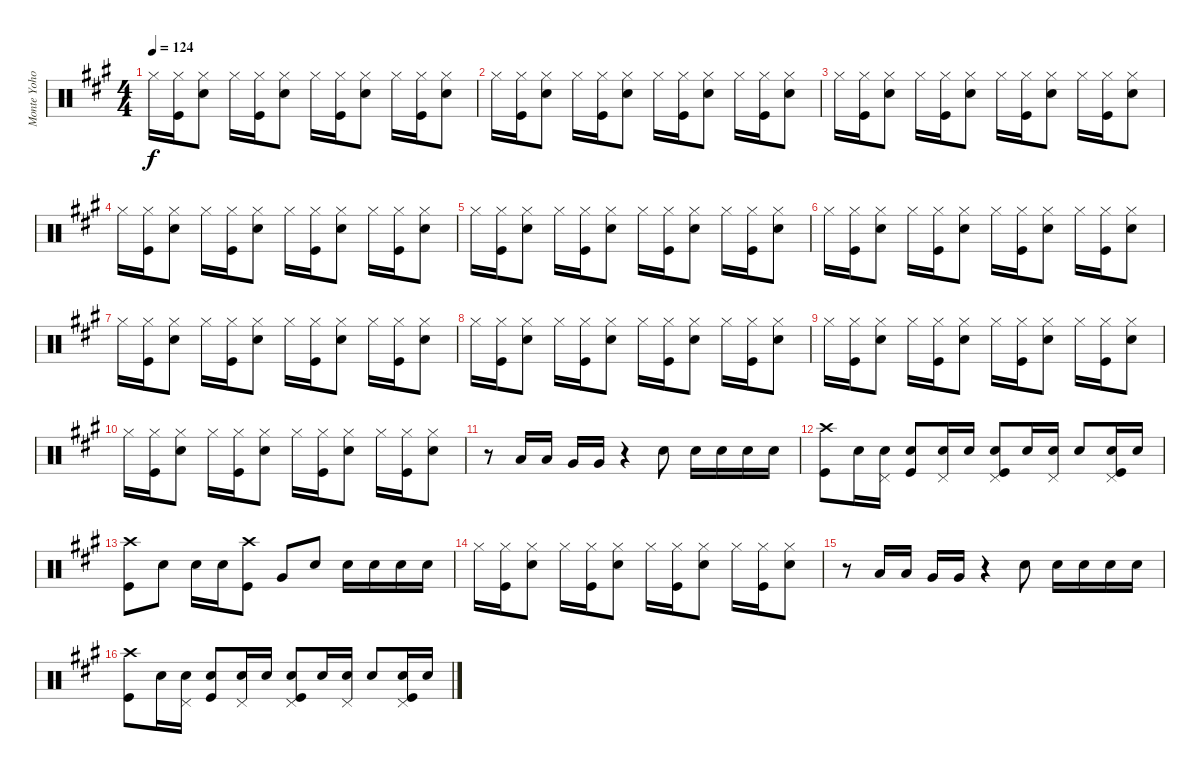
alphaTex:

\track ("Monte Yoho Drums" "Monte Yoho") {instrument percussion}
\staff {score}
\articulation defaults
\ts (4 4)
\tempo 124
\clef neutral
\ks a "Hi-Hat (closed)".16{dy f}
("Hi-Hat (closed)" "Kick (hit)").16 ("Hi-Hat (closed)" "Snare (hit) 2").8 "Hi-Hat (closed)".16 ("Hi-Hat (closed)" "Kick (hit)").16 ("Hi-Hat (closed)" "Snare (hit) 2").8 "Hi-Hat (closed)".16 ("Hi-Hat (closed)" "Kick (hit)").16 ("Hi-Hat (closed)" "Snare (hit) 2").8 "Hi-Hat (closed)".16 ("Hi-Hat (closed)" "Kick (hit)").16 ("Hi-Hat (closed)" "Snare (hit) 2").8 |
"Hi-Hat (closed)".16 ("Hi-Hat (closed)" "Kick (hit)").16 ("Hi-Hat (closed)" "Snare (hit) 2").8 "Hi-Hat (closed)".16 ("Hi-Hat (closed)" "Kick (hit)").16 ("Hi-Hat (closed)" "Snare (hit) 2").8 "Hi-Hat (closed)".16 ("Hi-Hat (closed)" "Kick (hit)").16 ("Hi-Hat (closed)" "Snare (hit) 2").8 "Hi-Hat (closed)".16 ("Hi-Hat (closed)" "Kick (hit)").16 ("Hi-Hat (closed)" "Snare (hit) 2").8 |
"Hi-Hat (closed)".16 ("Hi-Hat (closed)" "Kick (hit)").16 ("Hi-Hat (closed)" "Snare (hit) 2").8 "Hi-Hat (closed)".16 ("Hi-Hat (closed)" "Kick (hit)").16 ("Hi-Hat (closed)" "Snare (hit) 2").8 "Hi-Hat (closed)".16 ("Hi-Hat (closed)" "Kick (hit)").16 ("Hi-Hat (closed)" "Snare (hit) 2").8 "Hi-Hat (closed)".16 ("Hi-Hat (closed)" "Kick (hit)").16 ("Hi-Hat (closed)" "Snare (hit) 2").8 |
"Hi-Hat (closed)".16 ("Hi-Hat (closed)" "Kick (hit)").16 ("Hi-Hat (closed)" "Snare (hit) 2").8 "Hi-Hat (closed)".16 ("Hi-Hat (closed)" "Kick (hit)").16 ("Hi-Hat (closed)" "Snare (hit) 2").8 "Hi-Hat (closed)".16 ("Hi-Hat (closed)" "Kick (hit)").16 ("Hi-Hat (closed)" "Snare (hit) 2").8 "Hi-Hat (closed)".16 ("Hi-Hat (closed)" "Kick (hit)").16 ("Hi-Hat (closed)" "Snare (hit) 2").8 |
"Hi-Hat (closed)".16 ("Hi-Hat (closed)" "Kick (hit)").16 ("Hi-Hat (closed)" "Snare (hit) 2").8 "Hi-Hat (closed)".16 ("Hi-Hat (closed)" "Kick (hit)").16 ("Hi-Hat (closed)" "Snare (hit) 2").8 "Hi-Hat (closed)".16 ("Hi-Hat (closed)" "Kick (hit)").16 ("Hi-Hat (closed)" "Snare (hit) 2").8 "Hi-Hat (closed)".16 ("Hi-Hat (closed)" "Kick (hit)").16 ("Hi-Hat (closed)" "Snare (hit) 2").8 |
"Hi-Hat (closed)".16 ("Hi-Hat (closed)" "Kick (hit)").16 ("Hi-Hat (closed)" "Snare (hit) 2").8 "Hi-Hat (closed)".16 ("Hi-Hat (closed)" "Kick (hit)").16 ("Hi-Hat (closed)" "Snare (hit) 2").8 "Hi-Hat (closed)".16 ("Hi-Hat (closed)" "Kick (hit)").16 ("Hi-Hat (closed)" "Snare (hit) 2").8 "Hi-Hat (closed)".16 ("Hi-Hat (closed)" "Kick (hit)").16 ("Hi-Hat (closed)" "Snare (hit) 2").8 |
"Hi-Hat (closed)".16 ("Hi-Hat (closed)" "Kick (hit)").16 ("Hi-Hat (closed)" "Snare (hit) 2").8 "Hi-Hat (closed)".16 ("Hi-Hat (closed)" "Kick (hit)").16 ("Hi-Hat (closed)" "Snare (hit) 2").8 "Hi-Hat (closed)".16 ("Hi-Hat (closed)" "Kick (hit)").16 ("Hi-Hat (closed)" "Snare (hit) 2").8 "Hi-Hat (closed)".16 ("Hi-Hat (closed)" "Kick (hit)").16 ("Hi-Hat (closed)" "Snare (hit) 2").8 |
"Hi-Hat (closed)".16 ("Hi-Hat (closed)" "Kick (hit)").16 ("Hi-Hat (closed)" "Snare (hit) 2").8 "Hi-Hat (closed)".16 ("Hi-Hat (closed)" "Kick (hit)").16 ("Hi-Hat (closed)" "Snare (hit) 2").8 "Hi-Hat (closed)".16 ("Hi-Hat (closed)" "Kick (hit)").16 ("Hi-Hat (closed)" "Snare (hit) 2").8 "Hi-Hat (closed)".16 ("Hi-Hat (closed)" "Kick (hit)").16 ("Hi-Hat (closed)" "Snare (hit) 2").8 |
"Hi-Hat (closed)".16 ("Hi-Hat (closed)" "Kick (hit)").16 ("Hi-Hat (closed)" "Snare (hit) 2").8 "Hi-Hat (closed)".16 ("Hi-Hat (closed)" "Kick (hit)").16 ("Hi-Hat (closed)" "Snare (hit) 2").8 "Hi-Hat (closed)".16 ("Hi-Hat (closed)" "Kick (hit)").16 ("Hi-Hat (closed)" "Snare (hit) 2").8 "Hi-Hat (closed)".16 ("Hi-Hat (closed)" "Kick (hit)").16 ("Hi-Hat (closed)" "Snare (hit) 2").8 |
"Hi-Hat (closed)".16 ("Hi-Hat (closed)" "Kick (hit)").16 ("Hi-Hat (closed)" "Snare (hit) 2").8 "Hi-Hat (closed)".16 ("Hi-Hat (closed)" "Kick (hit)").16 ("Hi-Hat (closed)" "Snare (hit) 2").8 "Hi-Hat (closed)".16 ("Hi-Hat (closed)" "Kick (hit)").16 ("Hi-Hat (closed)" "Snare (hit) 2").8 "Hi-Hat (closed)".16 ("Hi-Hat (closed)" "Kick (hit)").16 ("Hi-Hat (closed)" "Snare (hit) 2").8 |
r.8 "Low Tom (hit)".16 "Low Tom (hit)".16 "Very Low Tom (hit)".16 "Very Low Tom (hit)".16 r.4 "Snare (hit) 2".8 "Snare (hit) 2".16 "Snare (hit) 2".16 "Snare (hit) 2".16 "Snare (hit) 2".16 |
("Crash high (hit)" "Kick (hit)").8 "Snare (hit) 2".16 ("Pedal Hi-Hat (hit)" "Snare (hit) 2").16 ("Snare (hit) 2" "Kick (hit)").8 ("Pedal Hi-Hat (hit)" "Snare (hit) 2").16 "Snare (hit) 2".16 ("Pedal Hi-Hat (hit)" "Snare (hit) 2" "Kick (hit)").8 "Snare (hit) 2".16 ("Pedal Hi-Hat (hit)" "Snare (hit) 2").16 "Snare (hit) 2".8 ("Pedal Hi-Hat (hit)" "Snare (hit) 2" "Kick (hit)").16 "Snare (hit) 2".16 |
("Crash high (hit)" "Kick (hit)").8 "Snare (hit) 2".8 "Snare (hit) 2".16 "Snare (hit) 2".16 ("Crash high (hit)" "Kick (hit)").8 "Very Low Tom (hit)".8 "Snare (hit) 2".8 "Snare (hit) 2".16 "Snare (hit) 2".16 "Snare (hit) 2".16 "Snare (hit) 2".16 |
"Hi-Hat (closed)".16 ("Hi-Hat (closed)" "Kick (hit)").16 ("Hi-Hat (closed)" "Snare (hit) 2").8 "Hi-Hat (closed)".16 ("Hi-Hat (closed)" "Kick (hit)").16 ("Hi-Hat (closed)" "Snare (hit) 2").8 "Hi-Hat (closed)".16 ("Hi-Hat (closed)" "Kick (hit)").16 ("Hi-Hat (closed)" "Snare (hit) 2").8 "Hi-Hat (closed)".16 ("Hi-Hat (closed)" "Kick (hit)").16 ("Hi-Hat (closed)" "Snare (hit) 2").8 |
r.8 "Low Tom (hit)".16 "Low Tom (hit)".16 "Very Low Tom (hit)".16 "Very Low Tom (hit)".16 r.4 "Snare (hit) 2".8 "Snare (hit) 2".16 "Snare (hit) 2".16 "Snare (hit) 2".16 "Snare (hit) 2".16 |
("Crash high (hit)" "Kick (hit)").8 "Snare (hit) 2".16 ("Pedal Hi-Hat (hit)" "Snare (hit) 2").16 ("Snare (hit) 2" "Kick (hit)").8 ("Pedal Hi-Hat (hit)" "Snare (hit) 2").16 "Snare (hit) 2".16 ("Pedal Hi-Hat (hit)" "Snare (hit) 2" "Kick (hit)").8 "Snare (hit) 2".16 ("Pedal Hi-Hat (hit)" "Snare (hit) 2").16 "Snare (hit) 2".8 ("Pedal Hi-Hat (hit)" "Snare (hit) 2" "Kick (hit)").16 "Snare (hit) 2".16
